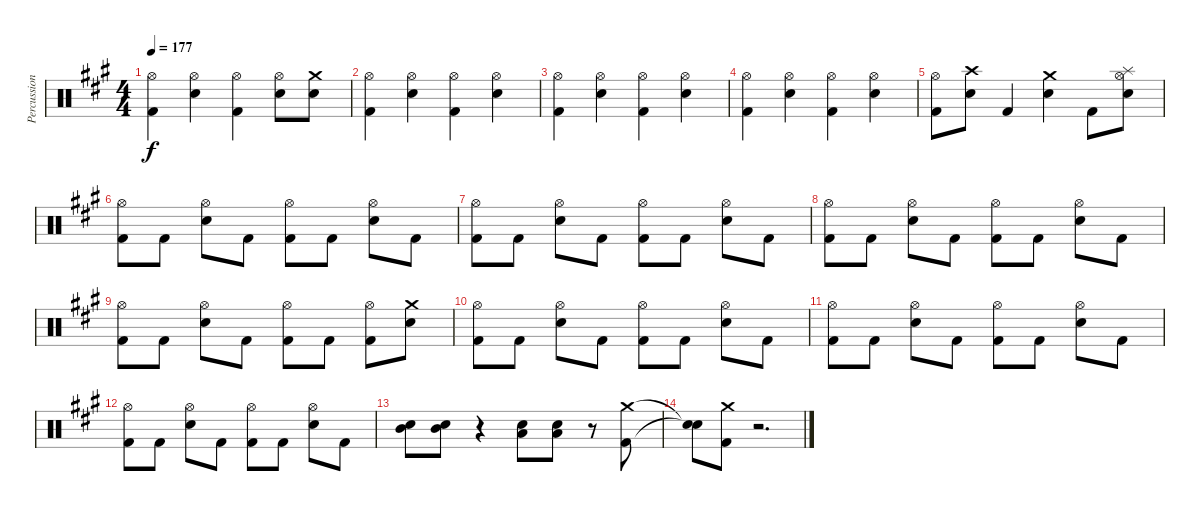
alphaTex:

\track ("Percussion" "Percussion") {instrument percussion}
\staff {score}
\articulation defaults
\ts (4 4)
\tempo 177
\clef neutral
\ks a
("Hi-Hat (open)" "Kick (hit) 2").4{dy f} ("Hi-Hat (open)" "Snare (hit) 2").4 ("Hi-Hat (open)" "Kick (hit) 2").4 ("Hi-Hat (open)" "Snare (hit) 2").8 ("Snare (hit) 2" "Crash medium (hit)").8 |
("Hi-Hat (open)" "Kick (hit) 2").4 ("Hi-Hat (open)" "Snare (hit) 2").4 ("Hi-Hat (open)" "Kick (hit) 2").4 ("Hi-Hat (open)" "Snare (hit) 2").4 |
("Hi-Hat (open)" "Kick (hit) 2").4 ("Hi-Hat (open)" "Snare (hit) 2").4 ("Hi-Hat (open)" "Kick (hit) 2").4 ("Hi-Hat (open)" "Snare (hit) 2").4 |
("Hi-Hat (open)" "Kick (hit) 2").4 ("Hi-Hat (open)" "Snare (hit) 2").4 ("Hi-Hat (open)" "Kick (hit) 2").4 ("Hi-Hat (open)" "Snare (hit) 2").4 |
("Hi-Hat (open)" "Kick (hit) 2").8 ("Snare (hit) 2" "Crash high (hit)").8 "Kick (hit) 2".4 ("Snare (hit) 2" "Crash medium (hit)").4 "Kick (hit) 2".8 ("Hi-Hat (open)" "Snare (hit) 2" "Splash (hit)").8 |
("Hi-Hat (open)" "Kick (hit) 2").8 "Kick (hit) 2".8 ("Hi-Hat (open)" "Snare (hit) 2").8 "Kick (hit) 2".8 ("Hi-Hat (open)" "Kick (hit) 2").8 "Kick (hit) 2".8 ("Hi-Hat (open)" "Snare (hit) 2").8 "Kick (hit) 2".8 |
("Hi-Hat (open)" "Kick (hit) 2").8 "Kick (hit) 2".8 ("Hi-Hat (open)" "Snare (hit) 2").8 "Kick (hit) 2".8 ("Hi-Hat (open)" "Kick (hit) 2").8 "Kick (hit) 2".8 ("Hi-Hat (open)" "Snare (hit) 2").8 "Kick (hit) 2".8 |
("Hi-Hat (open)" "Kick (hit) 2").8 "Kick (hit) 2".8 ("Hi-Hat (open)" "Snare (hit) 2").8 "Kick (hit) 2".8 ("Hi-Hat (open)" "Kick (hit) 2").8 "Kick (hit) 2".8 ("Hi-Hat (open)" "Snare (hit) 2").8 "Kick (hit) 2".8 |
("Hi-Hat (open)" "Kick (hit) 2").8 "Kick (hit) 2".8 ("Hi-Hat (open)" "Snare (hit) 2").8 "Kick (hit) 2".8 ("Hi-Hat (open)" "Kick (hit) 2").8 "Kick (hit) 2".8 ("Hi-Hat (open)" "Kick (hit) 2").8 ("Snare (hit) 2" "Crash medium (hit)").8 |
("Hi-Hat (open)" "Kick (hit) 2").8 "Kick (hit) 2".8 ("Hi-Hat (open)" "Snare (hit) 2").8 "Kick (hit) 2".8 ("Hi-Hat (open)" "Kick (hit) 2").8 "Kick (hit) 2".8 ("Hi-Hat (open)" "Snare (hit) 2").8 "Kick (hit) 2".8 |
("Hi-Hat (open)" "Kick (hit) 2").8 "Kick (hit) 2".8 ("Hi-Hat (open)" "Snare (hit) 2").8 "Kick (hit) 2".8 ("Hi-Hat (open)" "Kick (hit) 2").8 "Kick (hit) 2".8 ("Hi-Hat (open)" "Snare (hit) 2").8 "Kick (hit) 2".8 |
("Hi-Hat (open)" "Kick (hit) 2").8 "Kick (hit) 2".8 ("Hi-Hat (open)" "Snare (hit) 2").8 "Kick (hit) 2".8 ("Hi-Hat (open)" "Kick (hit) 2").8 "Kick (hit) 2".8 ("Hi-Hat (open)" "Snare (hit) 2").8 "Kick (hit) 2".8 |
("Mid Tom (hit)" "Snare (hit) 2").8 ("Mid Tom (hit)" "Snare (hit) 2").8 r.4 ("Low Tom (hit)" "Snare (hit) 2").8 ("Low Tom (hit)" "Snare (hit) 2").8 r.8 ("Kick (hit) 2" "Crash medium (hit)").8 |
("Snare (hit)"{t} "Snare (hit)"{t}).8 ("Kick (hit) 2" "Crash medium (hit)").8 r.2{d}
